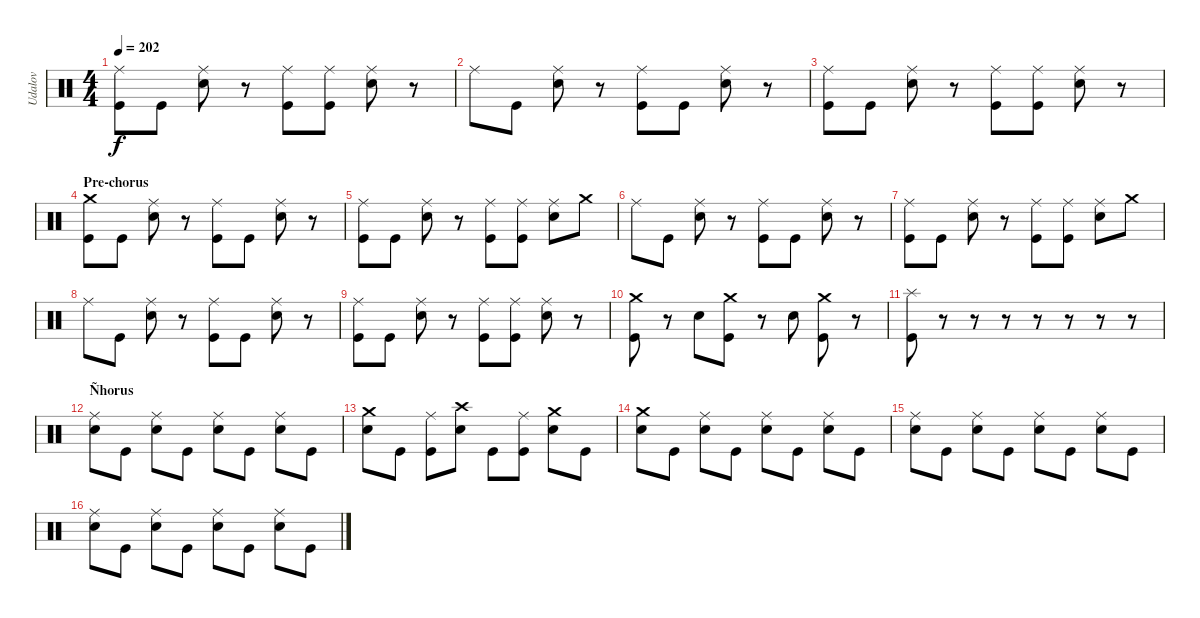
\track ("Udalov" "Udalov") {instrument percussion}
\staff {score}
\articulation defaults
\ts (4 4)
\tempo 202
\clef neutral
\ks c
("Kick (hit)" "Ride (middle)").8{dy f} "Kick (hit)".8 ("Electric Snare (hit)" "Ride (middle)").8 r.8 ("Kick (hit)" "Ride (middle)").8 ("Kick (hit)" "Ride (middle)").8 ("Electric Snare (hit)" "Ride (middle)").8 r.8 |
"Ride (middle)".8 "Kick (hit)".8 ("Electric Snare (hit)" "Ride (middle)").8 r.8 ("Kick (hit)" "Ride (middle)").8 "Kick (hit)".8 ("Electric Snare (hit)" "Ride (middle)").8 r.8 |
("Kick (hit)" "Ride (middle)").8 "Kick (hit)".8 ("Electric Snare (hit)" "Ride (middle)").8 r.8 ("Kick (hit)" "Ride (middle)").8 ("Kick (hit)" "Ride (middle)").8 ("Electric Snare (hit)" "Ride (middle)").8 r.8 |
\section ("" "Pre-chorus")
("Kick (hit)" "Crash medium (hit)").8 "Kick (hit)".8 ("Electric Snare (hit)" "Ride (middle)").8 r.8 ("Kick (hit)" "Ride (middle)").8 "Kick (hit)".8 ("Electric Snare (hit)" "Ride (middle)").8 r.8 |
("Kick (hit)" "Ride (middle)").8 "Kick (hit)".8 ("Electric Snare (hit)" "Ride (middle)").8 r.8 ("Kick (hit)" "Ride (middle)").8 ("Kick (hit)" "Ride (middle)").8 ("Electric Snare (hit)" "Ride (middle)").8 "Crash medium (hit)".8 |
"Ride (middle)".8 "Kick (hit)".8 ("Electric Snare (hit)" "Ride (middle)").8 r.8 ("Kick (hit)" "Ride (middle)").8 "Kick (hit)".8 ("Electric Snare (hit)" "Ride (middle)").8 r.8 |
("Kick (hit)" "Ride (middle)").8 "Kick (hit)".8 ("Electric Snare (hit)" "Ride (middle)").8 r.8 ("Kick (hit)" "Ride (middle)").8 ("Kick (hit)" "Ride (middle)").8 ("Electric Snare (hit)" "Ride (middle)").8 "Crash medium (hit)".8 |
"Ride (middle)".8 "Kick (hit)".8 ("Electric Snare (hit)" "Ride (middle)").8 r.8 ("Kick (hit)" "Ride (middle)").8 "Kick (hit)".8 ("Electric Snare (hit)" "Ride (middle)").8 r.8 |
("Kick (hit)" "Ride (middle)").8 "Kick (hit)".8 ("Electric Snare (hit)" "Ride (middle)").8 r.8 ("Kick (hit)" "Ride (middle)").8 ("Kick (hit)" "Ride (middle)").8 ("Electric Snare (hit)" "Ride (middle)").8 r.8 |
("Kick (hit)" "Crash medium (hit)").8 r.8 "Electric Snare (hit)".8 ("Kick (hit)" "Crash medium (hit)").8 r.8 "Electric Snare (hit)".8 ("Kick (hit)" "Crash medium (hit)").8 r.8 |
("Kick (hit)" "Splash (hit)").8 r.8 r.8 r.8 r.8 r.8 r.8 r.8 |
\section ("" "Ñhorus ")
("Electric Snare (hit)" "Ride (middle)").8 "Kick (hit)".8 ("Electric Snare (hit)" "Ride (middle)").8 "Kick (hit)".8 ("Electric Snare (hit)" "Ride (middle)").8 "Kick (hit)".8 ("Electric Snare (hit)" "Ride (middle)").8 "Kick (hit)".8 |
("Electric Snare (hit)" "Crash medium (hit)").8 "Kick (hit)".8 ("Kick (hit)" "Ride (middle)").8 ("Electric Snare (hit)" "Crash high (hit)").8 "Kick (hit)".8 ("Kick (hit)" "Ride (middle)").8 ("Electric Snare (hit)" "Crash medium (hit)").8 "Kick (hit)".8 |
("Electric Snare (hit)" "Crash medium (hit)").8 "Kick (hit)".8 ("Electric Snare (hit)" "Ride (middle)").8 "Kick (hit)".8 ("Electric Snare (hit)" "Ride (middle)").8 "Kick (hit)".8 ("Electric Snare (hit)" "Ride (middle)").8 "Kick (hit)".8 |
("Electric Snare (hit)" "Ride (middle)").8 "Kick (hit)".8 ("Electric Snare (hit)" "Ride (middle)").8 "Kick (hit)".8 ("Electric Snare (hit)" "Ride (middle)").8 "Kick (hit)".8 ("Electric Snare (hit)" "Ride (middle)").8 "Kick (hit)".8 |
("Electric Snare (hit)" "Ride (middle)").8 "Kick (hit)".8 ("Electric Snare (hit)" "Ride (middle)").8 "Kick (hit)".8 ("Electric Snare (hit)" "Ride (middle)").8 "Kick (hit)".8 ("Electric Snare (hit)" "Ride (middle)").8 "Kick (hit)".8
